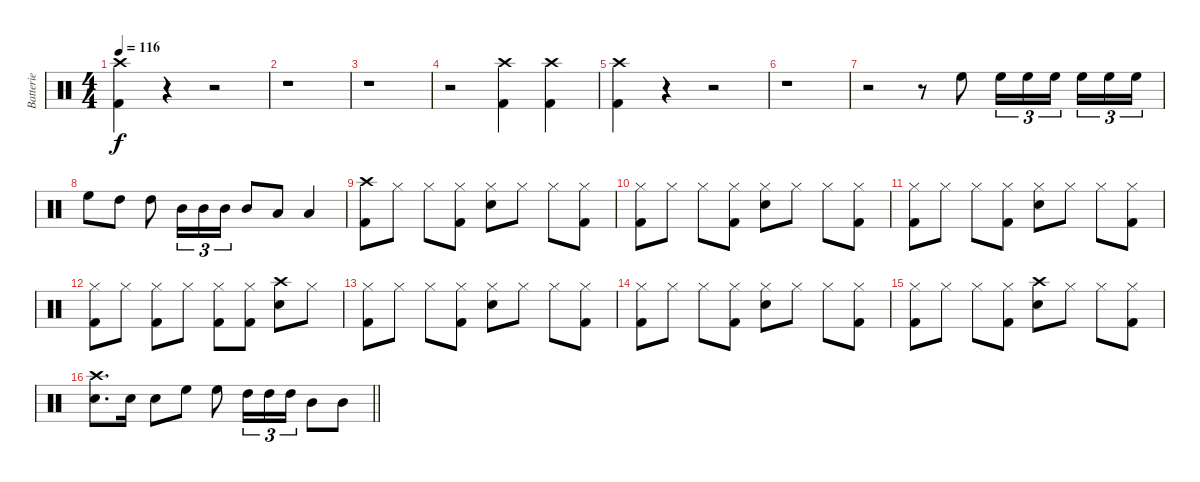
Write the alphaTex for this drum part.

\track ("Batterie" "Batterie") {instrument percussion}
\staff {score}
\articulation defaults
\ts (4 4)
\tempo 116
\clef neutral
\ks c
("Crash high (hit)" "Kick (hit) 2").4{dy f} r.4 r.2 |
r.1{volume 6} |
r.1 |
r.2 ("Crash high (hit)" "Kick (hit) 2").4 ("Crash high (hit)" "Kick (hit) 2").4 |
("Crash high (hit)" "Kick (hit) 2").4 r.4 r.2 |
r.1{volume 1} |
r.2 r.8{volume 4} "High Floor Tom (hit)".8 "High Floor Tom (hit)".16{tu (3 2)} "High Floor Tom (hit)".16{tu (3 2)} "High Floor Tom (hit)".16{tu (3 2)} "High Floor Tom (hit)".16{tu (3 2)} "High Floor Tom (hit)".16{tu (3 2)} "High Floor Tom (hit)".16{tu (3 2)} |
"High Floor Tom (hit)".8 "High Tom (hit)".8 "High Tom (hit)".8 "Mid Tom (hit)".16{tu (3 2)} "Mid Tom (hit)".16{tu (3 2)} "Mid Tom (hit)".16{tu (3 2)} "Mid Tom (hit)".8{volume 8} "Low Tom (hit)".8 "Low Tom (hit)".4 |
("Crash high (hit)" "Kick (hit) 2").8 "Hi-Hat (closed)".8 "Hi-Hat (closed)".8 ("Hi-Hat (closed)" "Kick (hit) 2").8 ("Hi-Hat (closed)" "Snare (hit) 2").8 "Hi-Hat (closed)".8 "Hi-Hat (closed)".8 ("Hi-Hat (closed)" "Kick (hit) 2").8 |
("Hi-Hat (closed)" "Kick (hit) 2").8 "Hi-Hat (closed)".8 "Hi-Hat (closed)".8 ("Hi-Hat (closed)" "Kick (hit) 2").8 ("Hi-Hat (closed)" "Snare (hit) 2").8 "Hi-Hat (closed)".8 "Hi-Hat (closed)".8 ("Hi-Hat (closed)" "Kick (hit) 2").8 |
("Hi-Hat (closed)" "Kick (hit) 2").8 "Hi-Hat (closed)".8 "Hi-Hat (closed)".8 ("Hi-Hat (closed)" "Kick (hit) 2").8 ("Hi-Hat (closed)" "Snare (hit) 2").8 "Hi-Hat (closed)".8 "Hi-Hat (closed)".8 ("Hi-Hat (closed)" "Kick (hit) 2").8 |
("Hi-Hat (closed)" "Kick (hit) 2").8 "Hi-Hat (closed)".8 ("Hi-Hat (closed)" "Kick (hit) 2").8 "Hi-Hat (closed)".8 ("Hi-Hat (closed)" "Kick (hit) 2").8 ("Hi-Hat (closed)" "Kick (hit) 2").8 ("Crash high (hit)" "Snare (hit) 2").8 "Hi-Hat (closed)".8 |
("Hi-Hat (closed)" "Kick (hit) 2").8 "Hi-Hat (closed)".8 "Hi-Hat (closed)".8 ("Hi-Hat (closed)" "Kick (hit) 2").8 ("Hi-Hat (closed)" "Snare (hit) 2").8 "Hi-Hat (closed)".8 "Hi-Hat (closed)".8 ("Hi-Hat (closed)" "Kick (hit) 2").8 |
("Hi-Hat (closed)" "Kick (hit) 2").8 "Hi-Hat (closed)".8 "Hi-Hat (closed)".8 ("Hi-Hat (closed)" "Kick (hit) 2").8 ("Hi-Hat (closed)" "Snare (hit) 2").8 "Hi-Hat (closed)".8 "Hi-Hat (closed)".8 ("Hi-Hat (closed)" "Kick (hit) 2").8 |
("Hi-Hat (closed)" "Kick (hit) 2").8 "Hi-Hat (closed)".8 "Hi-Hat (closed)".8 ("Hi-Hat (closed)" "Kick (hit) 2").8 ("Crash high (hit)" "Snare (hit) 2").8 "Hi-Hat (closed)".8 "Hi-Hat (closed)".8 ("Hi-Hat (closed)" "Kick (hit) 2").8 |
\barLineRight lightlight
("Crash high (hit)" "Snare (hit) 2").8{d} "Snare (hit) 2".16 "Snare (hit) 2".8 "High Floor Tom (hit)".8 "High Floor Tom (hit)".8 "High Tom (hit)".16{tu (3 2)} "High Tom (hit)".16{tu (3 2)} "High Tom (hit)".16{tu (3 2)} "Mid Tom (hit)".8 "Mid Tom (hit)".8
